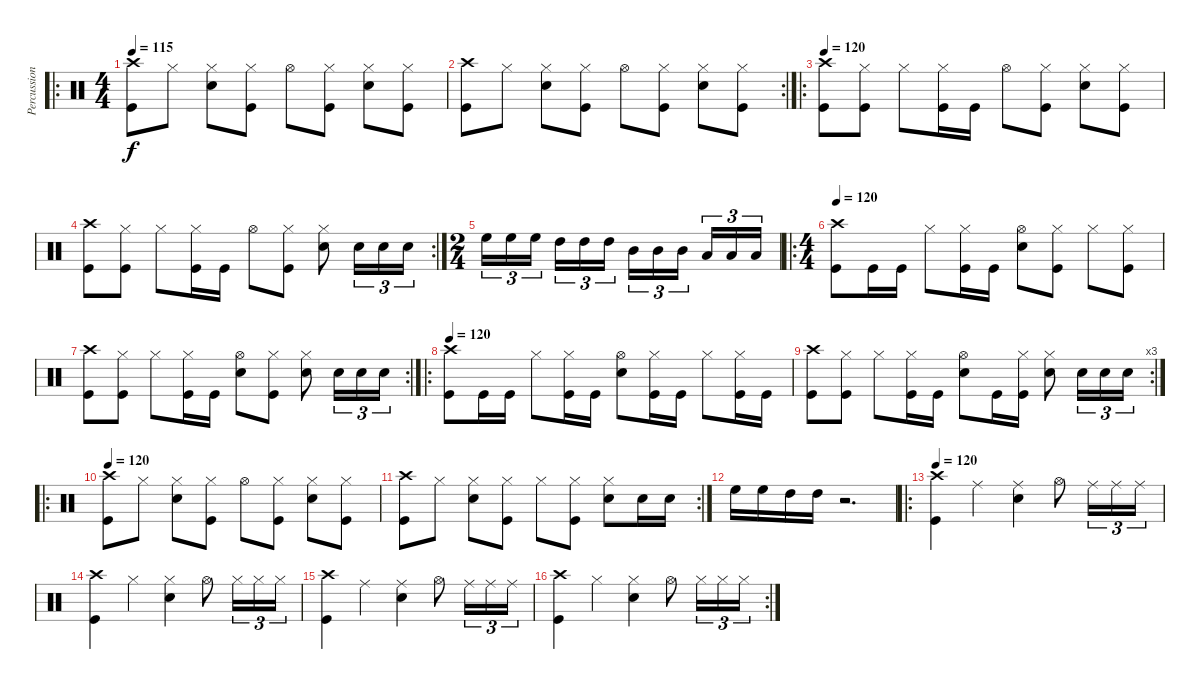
\track ("Percussion" "Percussion") {instrument percussion}
\staff {score}
\articulation defaults
\ro
\ts (4 4)
\tempo 115
\clef neutral
\ks c
("Crash high (hit)" "Kick (hit)").8{dy f} "Hi-Hat (closed)".8 ("Hi-Hat (closed)" "Snare (hit) 2").8 ("Hi-Hat (closed)" "Kick (hit)").8 "Hi-Hat (open)".8 ("Hi-Hat (closed)" "Kick (hit)").8 ("Hi-Hat (closed)" "Snare (hit) 2").8 ("Hi-Hat (closed)" "Kick (hit)").8 |
\rc 2
("Crash high (hit)" "Kick (hit)").8 "Hi-Hat (closed)".8 ("Hi-Hat (closed)" "Snare (hit) 2").8 ("Hi-Hat (closed)" "Kick (hit)").8 "Hi-Hat (open)".8 ("Hi-Hat (closed)" "Kick (hit)").8 ("Hi-Hat (closed)" "Snare (hit) 2").8 ("Hi-Hat (closed)" "Kick (hit)").8 |
\ro
\tempo 120
("Crash high (hit)" "Kick (hit)").8 ("Hi-Hat (closed)" "Kick (hit)").8 "Hi-Hat (closed)".8 ("Hi-Hat (closed)" "Kick (hit)").16 "Kick (hit)".16 "Hi-Hat (open)".8 ("Hi-Hat (closed)" "Kick (hit)").8 ("Hi-Hat (closed)" "Snare (hit) 2").8 ("Hi-Hat (closed)" "Kick (hit)").8 |
\rc 2
("Crash high (hit)" "Kick (hit)").8 ("Hi-Hat (closed)" "Kick (hit)").8 "Hi-Hat (closed)".8 ("Hi-Hat (closed)" "Kick (hit)").16 "Kick (hit)".16 "Hi-Hat (open)".8 ("Hi-Hat (closed)" "Kick (hit)").8 ("Hi-Hat (closed)" "Snare (hit) 2").8 "Snare (hit) 2".16{tu (3 2)} "Snare (hit) 2".16{tu (3 2)} "Snare (hit) 2".16{tu (3 2)} |
\ts (2 4)
"High Floor Tom (hit)".16{tu (3 2)} "High Floor Tom (hit)".16{tu (3 2)} "High Floor Tom (hit)".16{tu (3 2)} "High Tom (hit)".16{tu (3 2)} "High Tom (hit)".16{tu (3 2)} "High Tom (hit)".16{tu (3 2)} "Mid Tom (hit)".16{tu (3 2)} "Mid Tom (hit)".16{tu (3 2)} "Mid Tom (hit)".16{tu (3 2)} "Low Tom (hit)".16{tu (3 2)} "Low Tom (hit)".16{tu (3 2)} "Low Tom (hit)".16{tu (3 2)} |
\ro
\ts (4 4)
\tempo 120
("Crash high (hit)" "Kick (hit)").8 "Kick (hit)".16 "Kick (hit)".16 "Hi-Hat (closed)".8 ("Hi-Hat (closed)" "Kick (hit)").16 "Kick (hit)".16 ("Hi-Hat (open)" "Snare (hit) 2").8 ("Hi-Hat (closed)" "Kick (hit)").8 "Hi-Hat (closed)".8 ("Hi-Hat (closed)" "Kick (hit)").8 |
\rc 2
("Crash high (hit)" "Kick (hit)").8 ("Hi-Hat (closed)" "Kick (hit)").8 "Hi-Hat (closed)".8 ("Hi-Hat (closed)" "Kick (hit)").16 "Kick (hit)".16 ("Hi-Hat (open)" "Snare (hit) 2").8 ("Hi-Hat (closed)" "Kick (hit)").8 ("Hi-Hat (closed)" "Snare (hit) 2").8 "Snare (hit) 2".16{tu (3 2)} "Snare (hit) 2".16{tu (3 2)} "Snare (hit) 2".16{tu (3 2)} |
\ro
\tempo 120
("Crash high (hit)" "Kick (hit)").8 "Kick (hit)".16 "Kick (hit)".16 "Hi-Hat (closed)".8 ("Hi-Hat (closed)" "Kick (hit)").16 "Kick (hit)".16 ("Hi-Hat (open)" "Snare (hit) 2").8 ("Hi-Hat (closed)" "Kick (hit)").16 "Kick (hit)".16 "Hi-Hat (closed)".8 ("Hi-Hat (closed)" "Kick (hit)").16 "Kick (hit)".16 |
\rc 3
("Crash high (hit)" "Kick (hit)").8 ("Hi-Hat (closed)" "Kick (hit)").8 "Hi-Hat (closed)".8 ("Hi-Hat (closed)" "Kick (hit)").16 "Kick (hit)".16 ("Hi-Hat (open)" "Snare (hit) 2").8 "Kick (hit)".16 ("Hi-Hat (closed)" "Kick (hit)").16 ("Hi-Hat (closed)" "Snare (hit) 2").8 "Snare (hit) 2".16{tu (3 2)} "Snare (hit) 2".16{tu (3 2)} "Snare (hit) 2".16{tu (3 2)} |
\ro
\tempo 120
("Crash high (hit)" "Kick (hit)").8 "Hi-Hat (closed)".8 ("Hi-Hat (closed)" "Snare (hit) 2").8 ("Hi-Hat (closed)" "Kick (hit)").8 "Hi-Hat (open)".8 ("Hi-Hat (closed)" "Kick (hit)").8 ("Hi-Hat (closed)" "Snare (hit) 2").8 ("Hi-Hat (closed)" "Kick (hit)").8 |
\rc 2
("Crash high (hit)" "Kick (hit)").8 "Hi-Hat (closed)".8 ("Hi-Hat (closed)" "Snare (hit) 2").8 ("Hi-Hat (closed)" "Kick (hit)").8 "Hi-Hat (closed)".8 ("Hi-Hat (closed)" "Kick (hit)").8 ("Hi-Hat (closed)" "Snare (hit) 2").8 "Snare (hit) 2".16 "Snare (hit) 2".16 |
"High Floor Tom (hit)".16 "High Floor Tom (hit)".16 "High Tom (hit)".16 "High Tom (hit)".16 r.2{d} |
\ro
\tempo 115
\tempo 120
("Crash high (hit)" "Kick (hit)").4{volume 10} "Ride (middle)".4 ("Ride (middle)" "Snare (hit) 2").4 "Hi-Hat (open)".8 "Ride (middle)".16{tu (3 2)} "Ride (middle)".16{tu (3 2)} "Ride (middle)".16{tu (3 2)} |
("Crash high (hit)" "Kick (hit)").4 "Hi-Hat (closed)".4 ("Hi-Hat (closed)" "Snare (hit) 2").4 "Hi-Hat (open)".8 "Hi-Hat (closed)".16{tu (3 2)} "Hi-Hat (closed)".16{tu (3 2)} "Hi-Hat (closed)".16{tu (3 2)} |
("Crash high (hit)" "Kick (hit)").4 "Ride (middle)".4 ("Ride (middle)" "Snare (hit) 2").4 "Hi-Hat (open)".8 "Ride (middle)".16{tu (3 2)} "Ride (middle)".16{tu (3 2)} "Ride (middle)".16{tu (3 2)} |
\rc 2
("Crash high (hit)" "Kick (hit)").4 "Hi-Hat (closed)".4 ("Hi-Hat (closed)" "Snare (hit) 2").4 "Hi-Hat (open)".8 "Hi-Hat (closed)".16{tu (3 2)} "Hi-Hat (closed)".16{tu (3 2)} "Hi-Hat (closed)".16{tu (3 2)}
